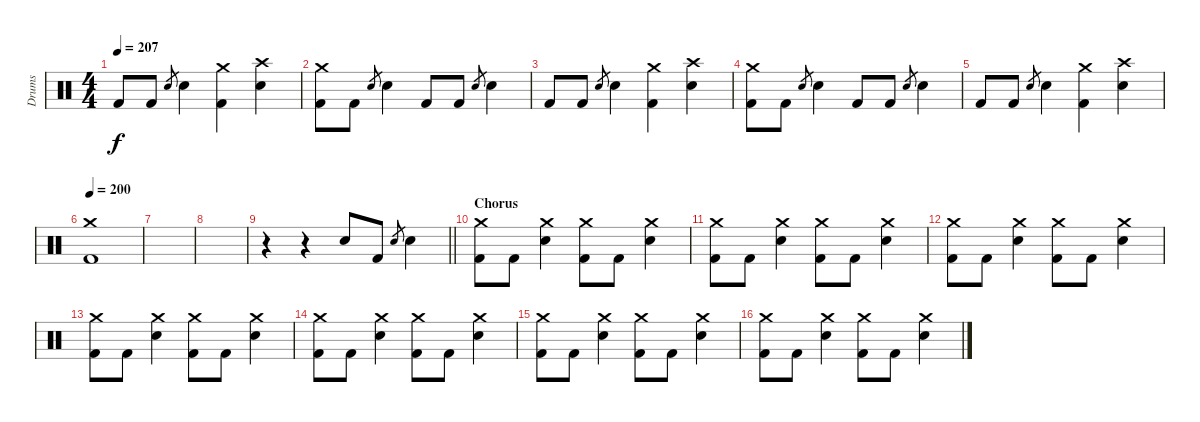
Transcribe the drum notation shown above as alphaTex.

\track ("Drums" "Drums") {instrument percussion}
\staff {score}
\articulation defaults
\ts (4 4)
\tempo 207
\clef neutral
\ks c "Kick (hit) 2".8{dy f} "Kick (hit) 2".8 "Electric Snare (hit)".8{gr} "Electric Snare (hit)".4
("Crash medium (hit)" "Kick (hit) 2").4 ("Crash high (hit)" "Electric Snare (hit)").4 |
("Crash medium (hit)" "Kick (hit) 2").8 "Kick (hit) 2".8 "Electric Snare (hit)".8{gr} "Electric Snare (hit)".4 "Kick (hit) 2".8 "Kick (hit) 2".8 "Electric Snare (hit)".8{gr} "Electric Snare (hit)".4 |
"Kick (hit) 2".8 "Kick (hit) 2".8 "Electric Snare (hit)".8{gr} "Electric Snare (hit)".4 ("Crash medium (hit)" "Kick (hit) 2").4 ("Crash high (hit)" "Electric Snare (hit)").4 |
("Crash medium (hit)" "Kick (hit) 2").8 "Kick (hit) 2".8 "Electric Snare (hit)".8{gr} "Electric Snare (hit)".4 "Kick (hit) 2".8 "Kick (hit) 2".8 "Electric Snare (hit)".8{gr} "Electric Snare (hit)".4 |
"Kick (hit) 2".8 "Kick (hit) 2".8 "Electric Snare (hit)".8{gr} "Electric Snare (hit)".4 ("Crash medium (hit)" "Kick (hit) 2").4 ("Crash high (hit)" "Electric Snare (hit)").4 |
\tempo 200
("Crash medium (hit)" "Kick (hit) 2").1 |
|
|
\barLineRight lightlight
r.4 r.4 "Electric Snare (hit)".8 "Kick (hit) 2".8 "Electric Snare (hit)".8{gr} "Electric Snare (hit)".4 |
\section ("" "Chorus")
("Crash medium (hit)" "Kick (hit) 2").8 "Kick (hit) 2".8 ("Crash medium (hit)" "Electric Snare (hit)").4 ("Crash medium (hit)" "Kick (hit) 2").8 "Kick (hit) 2".8 ("Crash medium (hit)" "Electric Snare (hit)").4 |
("Crash medium (hit)" "Kick (hit) 2").8 "Kick (hit) 2".8 ("Crash medium (hit)" "Electric Snare (hit)").4 ("Crash medium (hit)" "Kick (hit) 2").8 "Kick (hit) 2".8 ("Crash medium (hit)" "Electric Snare (hit)").4 |
("Crash medium (hit)" "Kick (hit) 2").8 "Kick (hit) 2".8 ("Crash medium (hit)" "Electric Snare (hit)").4 ("Crash medium (hit)" "Kick (hit) 2").8 "Kick (hit) 2".8 ("Crash medium (hit)" "Electric Snare (hit)").4 |
("Crash medium (hit)" "Kick (hit) 2").8 "Kick (hit) 2".8 ("Crash medium (hit)" "Electric Snare (hit)").4 ("Crash medium (hit)" "Kick (hit) 2").8 "Kick (hit) 2".8 ("Crash medium (hit)" "Electric Snare (hit)").4 |
("Crash medium (hit)" "Kick (hit) 2").8 "Kick (hit) 2".8 ("Crash medium (hit)" "Electric Snare (hit)").4 ("Crash medium (hit)" "Kick (hit) 2").8 "Kick (hit) 2".8 ("Crash medium (hit)" "Electric Snare (hit)").4 |
("Crash medium (hit)" "Kick (hit) 2").8 "Kick (hit) 2".8 ("Crash medium (hit)" "Electric Snare (hit)").4 ("Crash medium (hit)" "Kick (hit) 2").8 "Kick (hit) 2".8 ("Crash medium (hit)" "Electric Snare (hit)").4 |
("Crash medium (hit)" "Kick (hit) 2").8 "Kick (hit) 2".8 ("Crash medium (hit)" "Electric Snare (hit)").4 ("Crash medium (hit)" "Kick (hit) 2").8 "Kick (hit) 2".8 ("Crash medium (hit)" "Electric Snare (hit)").4
